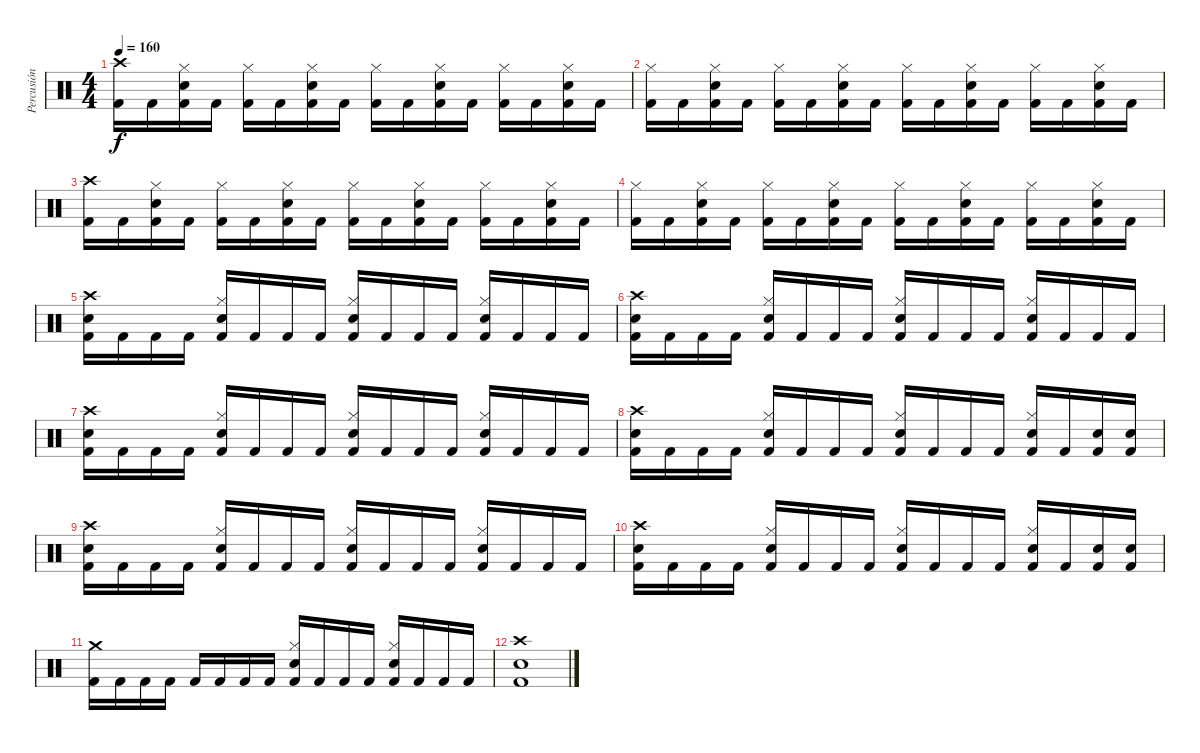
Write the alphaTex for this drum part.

\track ("Percusión" "Percusión") {instrument percussion}
\staff {score}
\articulation defaults
\ts (4 4)
\tempo 160
\clef neutral
\ks c
("Crash high (hit)" "Kick (hit) 2").16{dy f} "Kick (hit) 2".16 ("Hi-Hat (closed)" "Electric Snare (hit)" "Kick (hit) 2").16 "Kick (hit) 2".16 ("Hi-Hat (closed)" "Kick (hit) 2").16 "Kick (hit) 2".16 ("Hi-Hat (closed)" "Electric Snare (hit)" "Kick (hit) 2").16 "Kick (hit) 2".16 ("Hi-Hat (closed)" "Kick (hit) 2").16 "Kick (hit) 2".16 ("Hi-Hat (closed)" "Electric Snare (hit)" "Kick (hit) 2").16 "Kick (hit) 2".16 ("Hi-Hat (closed)" "Kick (hit) 2").16 "Kick (hit) 2".16 ("Hi-Hat (closed)" "Electric Snare (hit)" "Kick (hit) 2").16 "Kick (hit) 2".16 |
("Hi-Hat (closed)" "Kick (hit) 2").16 "Kick (hit) 2".16 ("Hi-Hat (closed)" "Electric Snare (hit)" "Kick (hit) 2").16 "Kick (hit) 2".16 ("Hi-Hat (closed)" "Kick (hit) 2").16 "Kick (hit) 2".16 ("Hi-Hat (closed)" "Electric Snare (hit)" "Kick (hit) 2").16 "Kick (hit) 2".16 ("Hi-Hat (closed)" "Kick (hit) 2").16 "Kick (hit) 2".16 ("Hi-Hat (closed)" "Electric Snare (hit)" "Kick (hit) 2").16 "Kick (hit) 2".16 ("Hi-Hat (closed)" "Kick (hit) 2").16 "Kick (hit) 2".16 ("Hi-Hat (closed)" "Electric Snare (hit)" "Kick (hit) 2").16 "Kick (hit) 2".16 |
("Crash high (hit)" "Kick (hit) 2").16 "Kick (hit) 2".16 ("Hi-Hat (closed)" "Electric Snare (hit)" "Kick (hit) 2").16 "Kick (hit) 2".16 ("Hi-Hat (closed)" "Kick (hit) 2").16 "Kick (hit) 2".16 ("Hi-Hat (closed)" "Electric Snare (hit)" "Kick (hit) 2").16 "Kick (hit) 2".16 ("Hi-Hat (closed)" "Kick (hit) 2").16 "Kick (hit) 2".16 ("Hi-Hat (closed)" "Electric Snare (hit)" "Kick (hit) 2").16 "Kick (hit) 2".16 ("Hi-Hat (closed)" "Kick (hit) 2").16 "Kick (hit) 2".16 ("Hi-Hat (closed)" "Electric Snare (hit)" "Kick (hit) 2").16 "Kick (hit) 2".16 |
("Hi-Hat (closed)" "Kick (hit) 2").16 "Kick (hit) 2".16 ("Hi-Hat (closed)" "Electric Snare (hit)" "Kick (hit) 2").16 "Kick (hit) 2".16 ("Hi-Hat (closed)" "Kick (hit) 2").16 "Kick (hit) 2".16 ("Hi-Hat (closed)" "Electric Snare (hit)" "Kick (hit) 2").16 "Kick (hit) 2".16 ("Hi-Hat (closed)" "Kick (hit) 2").16 "Kick (hit) 2".16 ("Hi-Hat (closed)" "Electric Snare (hit)" "Kick (hit) 2").16 "Kick (hit) 2".16 ("Hi-Hat (closed)" "Kick (hit) 2").16 "Kick (hit) 2".16 ("Hi-Hat (closed)" "Electric Snare (hit)" "Kick (hit) 2").16 "Kick (hit) 2".16 |
("Crash high (hit)" "Electric Snare (hit)" "Kick (hit) 2").16 "Kick (hit) 2".16 "Kick (hit) 2".16 "Kick (hit) 2".16 ("Hi-Hat (closed)" "Electric Snare (hit)" "Kick (hit) 2").16 "Kick (hit) 2".16 "Kick (hit) 2".16 "Kick (hit) 2".16 ("Hi-Hat (closed)" "Electric Snare (hit)" "Kick (hit) 2").16 "Kick (hit) 2".16 "Kick (hit) 2".16 "Kick (hit) 2".16 ("Hi-Hat (closed)" "Electric Snare (hit)" "Kick (hit) 2").16 "Kick (hit) 2".16 "Kick (hit) 2".16 "Kick (hit) 2".16 |
("Crash high (hit)" "Electric Snare (hit)" "Kick (hit) 2").16 "Kick (hit) 2".16 "Kick (hit) 2".16 "Kick (hit) 2".16 ("Hi-Hat (closed)" "Electric Snare (hit)" "Kick (hit) 2").16 "Kick (hit) 2".16 "Kick (hit) 2".16 "Kick (hit) 2".16 ("Hi-Hat (closed)" "Electric Snare (hit)" "Kick (hit) 2").16 "Kick (hit) 2".16 "Kick (hit) 2".16 "Kick (hit) 2".16 ("Hi-Hat (closed)" "Electric Snare (hit)" "Kick (hit) 2").16 "Kick (hit) 2".16 "Kick (hit) 2".16 "Kick (hit) 2".16 |
("Crash high (hit)" "Electric Snare (hit)" "Kick (hit) 2").16 "Kick (hit) 2".16 "Kick (hit) 2".16 "Kick (hit) 2".16 ("Hi-Hat (closed)" "Electric Snare (hit)" "Kick (hit) 2").16 "Kick (hit) 2".16 "Kick (hit) 2".16 "Kick (hit) 2".16 ("Hi-Hat (closed)" "Electric Snare (hit)" "Kick (hit) 2").16 "Kick (hit) 2".16 "Kick (hit) 2".16 "Kick (hit) 2".16 ("Hi-Hat (closed)" "Electric Snare (hit)" "Kick (hit) 2").16 "Kick (hit) 2".16 "Kick (hit) 2".16 "Kick (hit) 2".16 |
("Crash high (hit)" "Electric Snare (hit)" "Kick (hit) 2").16 "Kick (hit) 2".16 "Kick (hit) 2".16 "Kick (hit) 2".16 ("Hi-Hat (closed)" "Electric Snare (hit)" "Kick (hit) 2").16 "Kick (hit) 2".16 "Kick (hit) 2".16 "Kick (hit) 2".16 ("Hi-Hat (closed)" "Electric Snare (hit)" "Kick (hit) 2").16 "Kick (hit) 2".16 "Kick (hit) 2".16 "Kick (hit) 2".16 ("Hi-Hat (closed)" "Electric Snare (hit)" "Kick (hit) 2").16 "Kick (hit) 2".16 ("Electric Snare (hit)" "Kick (hit) 2").16 ("Electric Snare (hit)" "Kick (hit) 2").16 |
("Crash high (hit)" "Electric Snare (hit)" "Kick (hit) 2").16 "Kick (hit) 2".16 "Kick (hit) 2".16 "Kick (hit) 2".16 ("Hi-Hat (closed)" "Electric Snare (hit)" "Kick (hit) 2").16 "Kick (hit) 2".16 "Kick (hit) 2".16 "Kick (hit) 2".16 ("Hi-Hat (closed)" "Electric Snare (hit)" "Kick (hit) 2").16 "Kick (hit) 2".16 "Kick (hit) 2".16 "Kick (hit) 2".16 ("Hi-Hat (closed)" "Electric Snare (hit)" "Kick (hit) 2").16 "Kick (hit) 2".16 "Kick (hit) 2".16 "Kick (hit) 2".16 |
("Crash high (hit)" "Electric Snare (hit)" "Kick (hit) 2").16 "Kick (hit) 2".16 "Kick (hit) 2".16 "Kick (hit) 2".16 ("Hi-Hat (closed)" "Electric Snare (hit)" "Kick (hit) 2").16 "Kick (hit) 2".16 "Kick (hit) 2".16 "Kick (hit) 2".16 ("Hi-Hat (closed)" "Electric Snare (hit)" "Kick (hit) 2").16 "Kick (hit) 2".16 "Kick (hit) 2".16 "Kick (hit) 2".16 ("Hi-Hat (closed)" "Electric Snare (hit)" "Kick (hit) 2").16 "Kick (hit) 2".16 ("Electric Snare (hit)" "Kick (hit) 2").16 ("Electric Snare (hit)" "Kick (hit) 2").16 |
("Crash medium (hit)" "Kick (hit) 2").16 "Kick (hit) 2".16 "Kick (hit) 2".16 "Kick (hit) 2".16 "Kick (hit) 2".16 "Kick (hit) 2".16 "Kick (hit) 2".16 "Kick (hit) 2".16 ("Hi-Hat (closed)" "Electric Snare (hit)" "Kick (hit) 2").16 "Kick (hit) 2".16 "Kick (hit) 2".16 "Kick (hit) 2".16 ("Hi-Hat (closed)" "Electric Snare (hit)" "Kick (hit) 2").16 "Kick (hit) 2".16 "Kick (hit) 2".16 "Kick (hit) 2".16 |
("Crash high (hit)" "Electric Snare (hit)" "Kick (hit) 2").1
